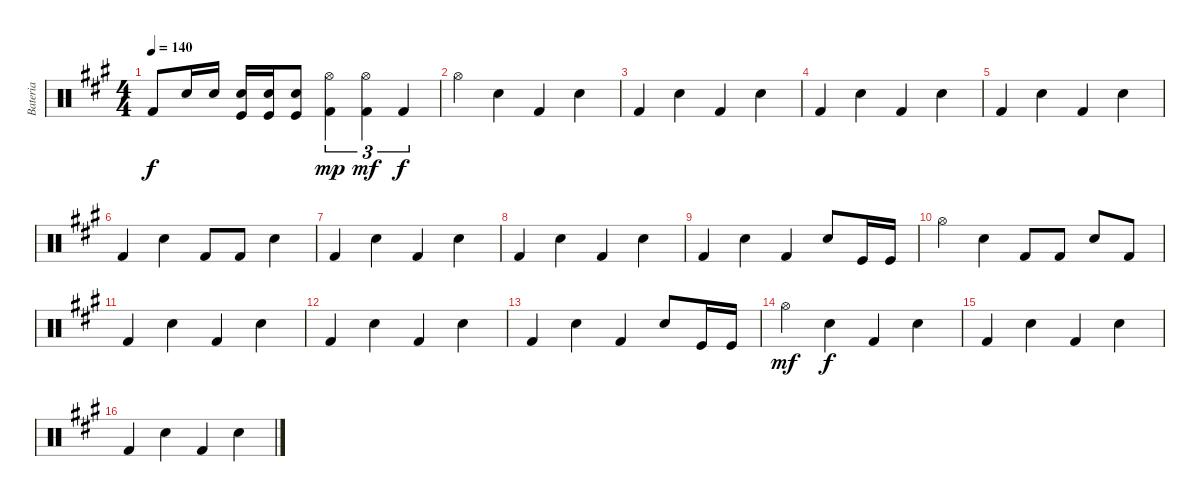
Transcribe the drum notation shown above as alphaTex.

\track ("Bateria" "Bateria") {instrument percussion}
\staff {score}
\articulation defaults
\ts (4 4)
\tempo 140
\clef neutral
\ks a "Kick (hit) 2".8{dy f} "Electric Snare (hit)".16 "Electric Snare (hit)".16
("Electric Snare (hit)" "Kick (hit)").16 ("Electric Snare (hit)" "Kick (hit)").16 ("Electric Snare (hit)" "Kick (hit)").8 ("Hi-Hat (open)" "Kick (hit) 2").4{tu (3 2) dy mp} ("Hi-Hat (open)" "Kick (hit) 2").4{tu (3 2) dy mf} "Kick (hit) 2".4{tu (3 2) dy f} |
"Hi-Hat (open)".4 "Electric Snare (hit)".4 "Kick (hit) 2".4 "Electric Snare (hit)".4 |
"Kick (hit) 2".4 "Electric Snare (hit)".4 "Kick (hit) 2".4 "Electric Snare (hit)".4 |
"Kick (hit) 2".4 "Electric Snare (hit)".4 "Kick (hit) 2".4 "Electric Snare (hit)".4 |
"Kick (hit) 2".4 "Electric Snare (hit)".4 "Kick (hit) 2".4 "Electric Snare (hit)".4 |
"Kick (hit) 2".4 "Electric Snare (hit)".4 "Kick (hit) 2".8 "Kick (hit) 2".8 "Electric Snare (hit)".4 |
"Kick (hit) 2".4 "Electric Snare (hit)".4 "Kick (hit) 2".4 "Electric Snare (hit)".4 |
"Kick (hit) 2".4 "Electric Snare (hit)".4 "Kick (hit) 2".4 "Electric Snare (hit)".4 |
"Kick (hit) 2".4 "Electric Snare (hit)".4 "Kick (hit) 2".4 "Electric Snare (hit)".8 "Kick (hit)".16 "Kick (hit)".16 |
"Hi-Hat (open)".4 "Electric Snare (hit)".4 "Kick (hit) 2".8 "Kick (hit) 2".8 "Electric Snare (hit)".8 "Kick (hit) 2".8 |
"Kick (hit) 2".4 "Electric Snare (hit)".4 "Kick (hit) 2".4 "Electric Snare (hit)".4 |
"Kick (hit) 2".4 "Electric Snare (hit)".4 "Kick (hit) 2".4 "Electric Snare (hit)".4 |
"Kick (hit) 2".4 "Electric Snare (hit)".4 "Kick (hit) 2".4 "Electric Snare (hit)".8 "Kick (hit)".16 "Kick (hit)".16 |
"Hi-Hat (open)".4{dy mf} "Electric Snare (hit)".4{dy f} "Kick (hit) 2".4 "Electric Snare (hit)".4 |
"Kick (hit) 2".4 "Electric Snare (hit)".4 "Kick (hit) 2".4 "Electric Snare (hit)".4 |
"Kick (hit) 2".4 "Electric Snare (hit)".4 "Kick (hit) 2".4 "Electric Snare (hit)".4
